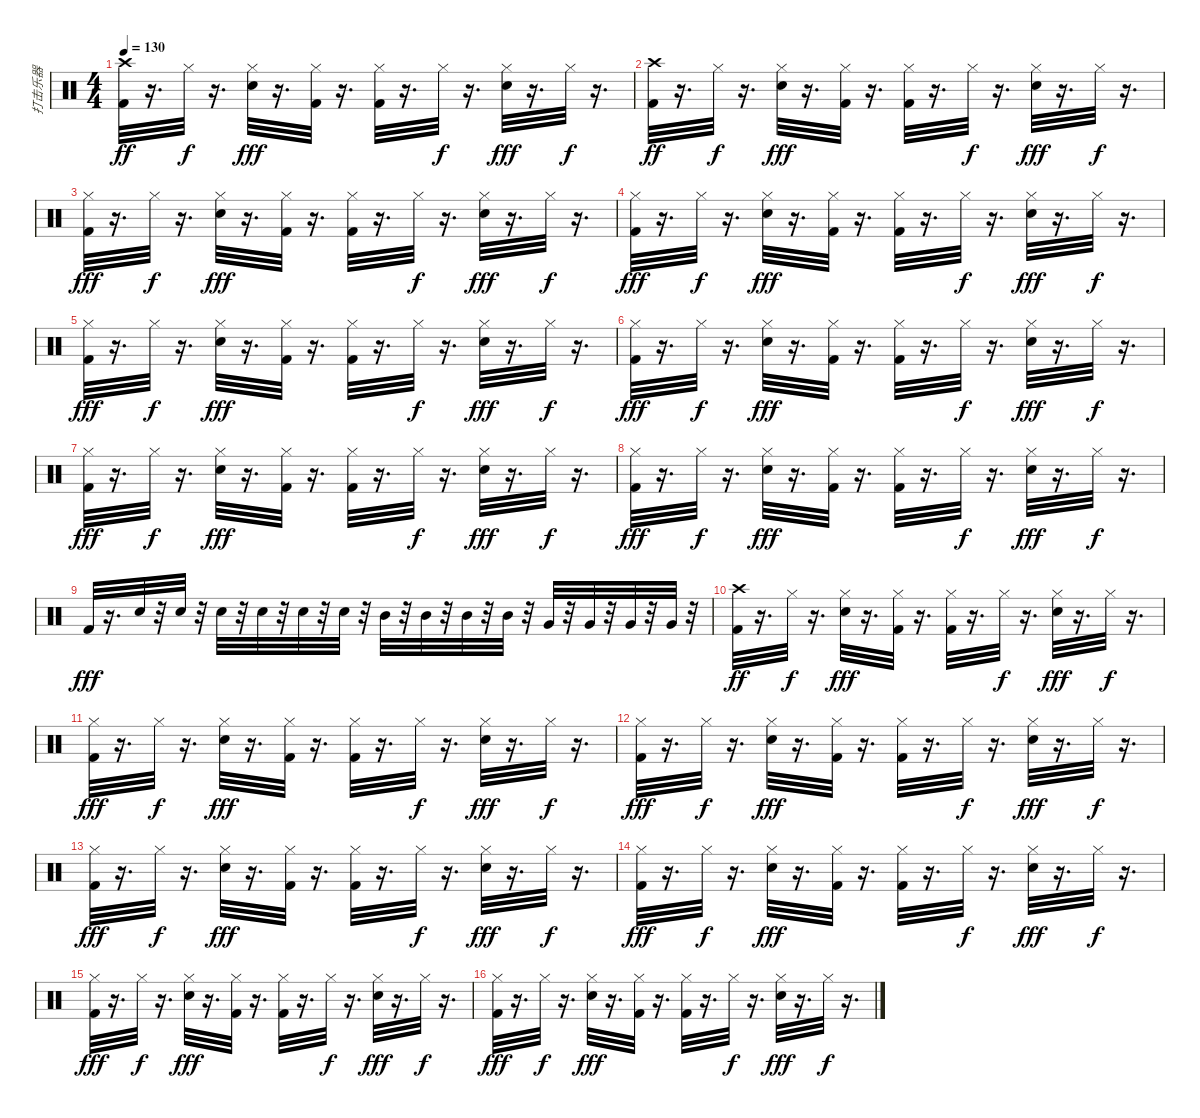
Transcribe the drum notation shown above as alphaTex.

\track ("打击乐器" "打击乐器") {instrument percussion}
\staff {score}
\articulation defaults
\ts (4 4)
\tempo 130
\clef neutral
\ks c
("Kick (hit) 2" "Crash high (hit)").32{dy ff} r.16{d} "Hi-Hat (closed)".32{dy f} r.16{d} ("Hi-Hat (closed)" "Electric Snare (hit)").32{dy fff} r.16{d} ("Kick (hit) 2" "Hi-Hat (closed)").32 r.16{d} ("Kick (hit) 2" "Hi-Hat (closed)").32 r.16{d} "Hi-Hat (closed)".32{dy f} r.16{d} ("Hi-Hat (closed)" "Electric Snare (hit)").32{dy fff} r.16{d} "Hi-Hat (closed)".32{dy f} r.16{d} |
("Kick (hit) 2" "Crash high (hit)").32{dy ff} r.16{d} "Hi-Hat (closed)".32{dy f} r.16{d} ("Hi-Hat (closed)" "Electric Snare (hit)").32{dy fff} r.16{d} ("Kick (hit) 2" "Hi-Hat (closed)").32 r.16{d} ("Kick (hit) 2" "Hi-Hat (closed)").32 r.16{d} "Hi-Hat (closed)".32{dy f} r.16{d} ("Hi-Hat (closed)" "Electric Snare (hit)").32{dy fff} r.16{d} "Hi-Hat (closed)".32{dy f} r.16{d} |
("Kick (hit) 2" "Hi-Hat (closed)").32{dy fff} r.16{d} "Hi-Hat (closed)".32{dy f} r.16{d} ("Hi-Hat (closed)" "Electric Snare (hit)").32{dy fff} r.16{d} ("Kick (hit) 2" "Hi-Hat (closed)").32 r.16{d} ("Kick (hit) 2" "Hi-Hat (closed)").32 r.16{d} "Hi-Hat (closed)".32{dy f} r.16{d} ("Hi-Hat (closed)" "Electric Snare (hit)").32{dy fff} r.16{d} "Hi-Hat (closed)".32{dy f} r.16{d} |
("Kick (hit) 2" "Hi-Hat (closed)").32{dy fff} r.16{d} "Hi-Hat (closed)".32{dy f} r.16{d} ("Hi-Hat (closed)" "Electric Snare (hit)").32{dy fff} r.16{d} ("Kick (hit) 2" "Hi-Hat (closed)").32 r.16{d} ("Kick (hit) 2" "Hi-Hat (closed)").32 r.16{d} "Hi-Hat (closed)".32{dy f} r.16{d} ("Hi-Hat (closed)" "Electric Snare (hit)").32{dy fff} r.16{d} "Hi-Hat (closed)".32{dy f} r.16{d} |
("Hi-Hat (closed)" "Kick (hit) 2").32{dy fff} r.16{d} "Hi-Hat (closed)".32{dy f} r.16{d} ("Hi-Hat (closed)" "Electric Snare (hit)").32{dy fff} r.16{d} ("Kick (hit) 2" "Hi-Hat (closed)").32 r.16{d} ("Kick (hit) 2" "Hi-Hat (closed)").32 r.16{d} "Hi-Hat (closed)".32{dy f} r.16{d} ("Hi-Hat (closed)" "Electric Snare (hit)").32{dy fff} r.16{d} "Hi-Hat (closed)".32{dy f} r.16{d} |
("Kick (hit) 2" "Hi-Hat (closed)").32{dy fff} r.16{d} "Hi-Hat (closed)".32{dy f} r.16{d} ("Hi-Hat (closed)" "Electric Snare (hit)").32{dy fff} r.16{d} ("Kick (hit) 2" "Hi-Hat (closed)").32 r.16{d} ("Kick (hit) 2" "Hi-Hat (closed)").32 r.16{d} "Hi-Hat (closed)".32{dy f} r.16{d} ("Hi-Hat (closed)" "Electric Snare (hit)").32{dy fff} r.16{d} "Hi-Hat (closed)".32{dy f} r.16{d} |
("Kick (hit) 2" "Hi-Hat (closed)").32{dy fff} r.16{d} "Hi-Hat (closed)".32{dy f} r.16{d} ("Hi-Hat (closed)" "Electric Snare (hit)").32{dy fff} r.16{d} ("Kick (hit) 2" "Hi-Hat (closed)").32 r.16{d} ("Kick (hit) 2" "Hi-Hat (closed)").32 r.16{d} "Hi-Hat (closed)".32{dy f} r.16{d} ("Hi-Hat (closed)" "Electric Snare (hit)").32{dy fff} r.16{d} "Hi-Hat (closed)".32{dy f} r.16{d} |
("Kick (hit) 2" "Hi-Hat (closed)").32{dy fff} r.16{d} "Hi-Hat (closed)".32{dy f} r.16{d} ("Hi-Hat (closed)" "Electric Snare (hit)").32{dy fff} r.16{d} ("Kick (hit) 2" "Hi-Hat (closed)").32 r.16{d} ("Kick (hit) 2" "Hi-Hat (closed)").32 r.16{d} "Hi-Hat (closed)".32{dy f} r.16{d} ("Hi-Hat (closed)" "Electric Snare (hit)").32{dy fff} r.16{d} "Hi-Hat (closed)".32{dy f} r.16{d} |
"Kick (hit) 2".32{dy fff} r.16{d} "Snare (hit) 2".32 r.32 "Electric Snare (hit)".32 r.32 "Snare (hit) 2".32 r.32 "Electric Snare (hit)".32 r.32 "Snare (hit) 2".32 r.32 "Electric Snare (hit)".32 r.32 "Mid Tom (hit)".32 r.32 "Mid Tom (hit)".32 r.32 "Mid Tom (hit)".32 r.32 "Mid Tom (hit)".32 r.32 "Very Low Tom (hit)".32 r.32 "Very Low Tom (hit)".32 r.32 "Very Low Tom (hit)".32 r.32 "Very Low Tom (hit)".32 r.32 |
("Kick (hit) 2" "Crash high (hit)").32{dy ff} r.16{d} "Hi-Hat (closed)".32{dy f} r.16{d} ("Hi-Hat (closed)" "Electric Snare (hit)").32{dy fff} r.16{d} ("Kick (hit) 2" "Hi-Hat (closed)").32 r.16{d} ("Kick (hit) 2" "Hi-Hat (closed)").32 r.16{d} "Hi-Hat (closed)".32{dy f} r.16{d} ("Hi-Hat (closed)" "Electric Snare (hit)").32{dy fff} r.16{d} "Hi-Hat (closed)".32{dy f} r.16{d} |
("Kick (hit) 2" "Hi-Hat (closed)").32{dy fff} r.16{d} "Hi-Hat (closed)".32{dy f} r.16{d} ("Hi-Hat (closed)" "Electric Snare (hit)").32{dy fff} r.16{d} ("Kick (hit) 2" "Hi-Hat (closed)").32 r.16{d} ("Kick (hit) 2" "Hi-Hat (closed)").32 r.16{d} "Hi-Hat (closed)".32{dy f} r.16{d} ("Hi-Hat (closed)" "Electric Snare (hit)").32{dy fff} r.16{d} "Hi-Hat (closed)".32{dy f} r.16{d} |
("Kick (hit) 2" "Hi-Hat (closed)").32{dy fff} r.16{d} "Hi-Hat (closed)".32{dy f} r.16{d} ("Hi-Hat (closed)" "Electric Snare (hit)").32{dy fff} r.16{d} ("Kick (hit) 2" "Hi-Hat (closed)").32 r.16{d} ("Kick (hit) 2" "Hi-Hat (closed)").32 r.16{d} "Hi-Hat (closed)".32{dy f} r.16{d} ("Hi-Hat (closed)" "Electric Snare (hit)").32{dy fff} r.16{d} "Hi-Hat (closed)".32{dy f} r.16{d} |
("Hi-Hat (closed)" "Kick (hit) 2").32{dy fff} r.16{d} "Hi-Hat (closed)".32{dy f} r.16{d} ("Hi-Hat (closed)" "Electric Snare (hit)").32{dy fff} r.16{d} ("Kick (hit) 2" "Hi-Hat (closed)").32 r.16{d} ("Kick (hit) 2" "Hi-Hat (closed)").32 r.16{d} "Hi-Hat (closed)".32{dy f} r.16{d} ("Hi-Hat (closed)" "Electric Snare (hit)").32{dy fff} r.16{d} "Hi-Hat (closed)".32{dy f} r.16{d} |
("Kick (hit) 2" "Hi-Hat (closed)").32{dy fff} r.16{d} "Hi-Hat (closed)".32{dy f} r.16{d} ("Hi-Hat (closed)" "Electric Snare (hit)").32{dy fff} r.16{d} ("Kick (hit) 2" "Hi-Hat (closed)").32 r.16{d} ("Kick (hit) 2" "Hi-Hat (closed)").32 r.16{d} "Hi-Hat (closed)".32{dy f} r.16{d} ("Hi-Hat (closed)" "Electric Snare (hit)").32{dy fff} r.16{d} "Hi-Hat (closed)".32{dy f} r.16{d} |
("Kick (hit) 2" "Hi-Hat (closed)").32{dy fff} r.16{d} "Hi-Hat (closed)".32{dy f} r.16{d} ("Hi-Hat (closed)" "Electric Snare (hit)").32{dy fff} r.16{d} ("Kick (hit) 2" "Hi-Hat (closed)").32 r.16{d} ("Kick (hit) 2" "Hi-Hat (closed)").32 r.16{d} "Hi-Hat (closed)".32{dy f} r.16{d} ("Hi-Hat (closed)" "Electric Snare (hit)").32{dy fff} r.16{d} "Hi-Hat (closed)".32{dy f} r.16{d} |
("Kick (hit) 2" "Hi-Hat (closed)").32{dy fff} r.16{d} "Hi-Hat (closed)".32{dy f} r.16{d} ("Hi-Hat (closed)" "Electric Snare (hit)").32{dy fff} r.16{d} ("Kick (hit) 2" "Hi-Hat (closed)").32 r.16{d} ("Kick (hit) 2" "Hi-Hat (closed)").32 r.16{d} "Hi-Hat (closed)".32{dy f} r.16{d} ("Hi-Hat (closed)" "Electric Snare (hit)").32{dy fff} r.16{d} "Hi-Hat (closed)".32{dy f} r.16{d}
